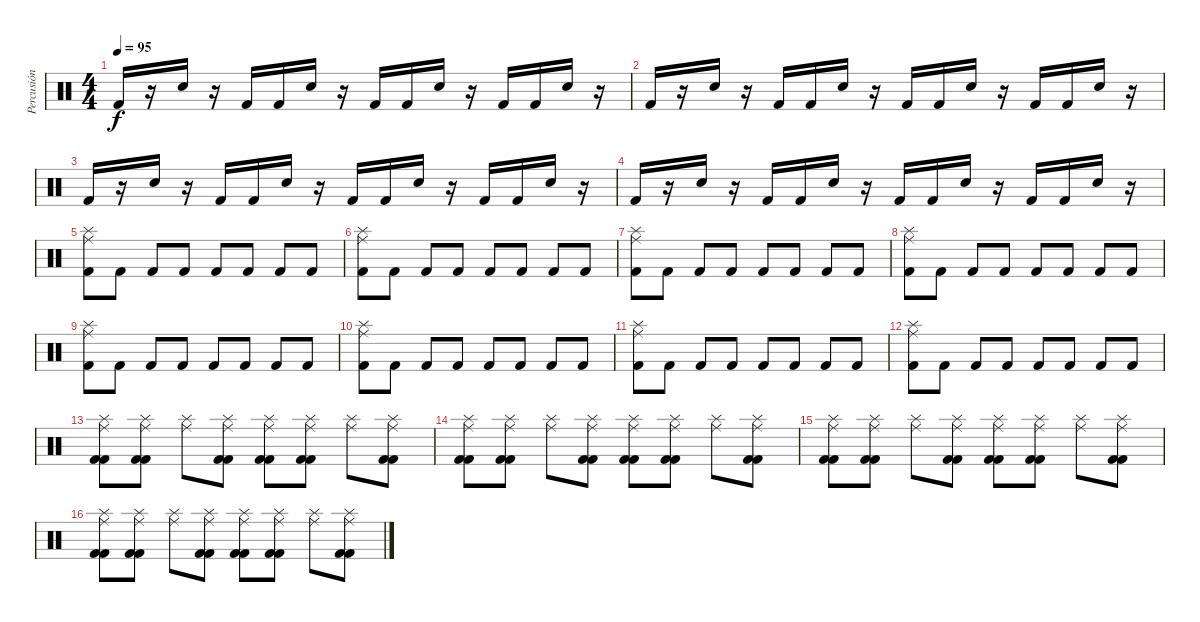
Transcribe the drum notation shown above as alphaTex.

\track ("Percusión" "Percusión") {instrument percussion}
\staff {score}
\articulation defaults
\ts (4 4)
\tempo 95
\clef neutral
\ks c "Kick (hit) 2".16{dy f}
r.16 "Snare (hit) 2".16 r.16 "Kick (hit) 2".16 "Kick (hit) 2".16 "Snare (hit) 2".16 r.16 "Kick (hit) 2".16 "Kick (hit) 2".16 "Snare (hit) 2".16 r.16 "Kick (hit) 2".16 "Kick (hit) 2".16 "Snare (hit) 2".16 r.16 |
"Kick (hit) 2".16 r.16 "Snare (hit) 2".16 r.16 "Kick (hit) 2".16 "Kick (hit) 2".16 "Snare (hit) 2".16 r.16 "Kick (hit) 2".16 "Kick (hit) 2".16 "Snare (hit) 2".16 r.16 "Kick (hit) 2".16 "Kick (hit) 2".16 "Snare (hit) 2".16 r.16 |
"Kick (hit) 2".16 r.16 "Snare (hit) 2".16 r.16 "Kick (hit) 2".16 "Kick (hit) 2".16 "Snare (hit) 2".16 r.16 "Kick (hit) 2".16 "Kick (hit) 2".16 "Snare (hit) 2".16 r.16 "Kick (hit) 2".16 "Kick (hit) 2".16 "Snare (hit) 2".16 r.16 |
"Kick (hit) 2".16 r.16 "Snare (hit) 2".16 r.16 "Kick (hit) 2".16 "Kick (hit) 2".16 "Snare (hit) 2".16 r.16 "Kick (hit) 2".16 "Kick (hit) 2".16 "Snare (hit) 2".16 r.16 "Kick (hit) 2".16 "Kick (hit) 2".16 "Snare (hit) 2".16 r.16 |
("Splash (hit)" "Ride (middle)" "Kick (hit) 2").8 "Kick (hit) 2".8 "Kick (hit) 2".8 "Kick (hit) 2".8 "Kick (hit) 2".8 "Kick (hit) 2".8 "Kick (hit) 2".8 "Kick (hit) 2".8 |
("Splash (hit)" "Ride (middle)" "Kick (hit) 2").8 "Kick (hit) 2".8 "Kick (hit) 2".8 "Kick (hit) 2".8 "Kick (hit) 2".8 "Kick (hit) 2".8 "Kick (hit) 2".8 "Kick (hit) 2".8 |
("Splash (hit)" "Ride (middle)" "Kick (hit) 2").8 "Kick (hit) 2".8 "Kick (hit) 2".8 "Kick (hit) 2".8 "Kick (hit) 2".8 "Kick (hit) 2".8 "Kick (hit) 2".8 "Kick (hit) 2".8 |
("Splash (hit)" "Ride (middle)" "Kick (hit) 2").8 "Kick (hit) 2".8 "Kick (hit) 2".8 "Kick (hit) 2".8 "Kick (hit) 2".8 "Kick (hit) 2".8 "Kick (hit) 2".8 "Kick (hit) 2".8 |
("Splash (hit)" "Ride (middle)" "Kick (hit) 2").8 "Kick (hit) 2".8 "Kick (hit) 2".8 "Kick (hit) 2".8 "Kick (hit) 2".8 "Kick (hit) 2".8 "Kick (hit) 2".8 "Kick (hit) 2".8 |
("Splash (hit)" "Ride (middle)" "Kick (hit) 2").8 "Kick (hit) 2".8 "Kick (hit) 2".8 "Kick (hit) 2".8 "Kick (hit) 2".8 "Kick (hit) 2".8 "Kick (hit) 2".8 "Kick (hit) 2".8 |
("Splash (hit)" "Ride (middle)" "Kick (hit) 2").8 "Kick (hit) 2".8 "Kick (hit) 2".8 "Kick (hit) 2".8 "Kick (hit) 2".8 "Kick (hit) 2".8 "Kick (hit) 2".8 "Kick (hit) 2".8 |
("Splash (hit)" "Ride (middle)" "Kick (hit) 2").8 "Kick (hit) 2".8 "Kick (hit) 2".8 "Kick (hit) 2".8 "Kick (hit) 2".8 "Kick (hit) 2".8 "Kick (hit) 2".8 "Kick (hit) 2".8 |
("Splash (hit)" "Ride (middle)" "Kick (hit) 2" "Kick (hit) 2").8 ("Splash (hit)" "Ride (middle)" "Kick (hit) 2" "Kick (hit) 2").8 ("Splash (hit)" "Ride (middle)").8 ("Splash (hit)" "Ride (middle)" "Kick (hit) 2" "Kick (hit) 2").8 ("Splash (hit)" "Ride (middle)" "Kick (hit) 2" "Kick (hit) 2").8 ("Splash (hit)" "Ride (middle)" "Kick (hit) 2" "Kick (hit) 2").8 ("Splash (hit)" "Ride (middle)").8 ("Splash (hit)" "Ride (middle)" "Kick (hit) 2" "Kick (hit) 2").8 |
("Splash (hit)" "Ride (middle)" "Kick (hit) 2" "Kick (hit) 2").8 ("Splash (hit)" "Ride (middle)" "Kick (hit) 2" "Kick (hit) 2").8 ("Splash (hit)" "Ride (middle)").8 ("Splash (hit)" "Ride (middle)" "Kick (hit) 2" "Kick (hit) 2").8 ("Splash (hit)" "Ride (middle)" "Kick (hit) 2" "Kick (hit) 2").8 ("Splash (hit)" "Ride (middle)" "Kick (hit) 2" "Kick (hit) 2").8 ("Splash (hit)" "Ride (middle)").8 ("Splash (hit)" "Ride (middle)" "Kick (hit) 2" "Kick (hit) 2").8 |
("Splash (hit)" "Ride (middle)" "Kick (hit) 2" "Kick (hit) 2").8 ("Splash (hit)" "Ride (middle)" "Kick (hit) 2" "Kick (hit) 2").8 ("Splash (hit)" "Ride (middle)").8 ("Splash (hit)" "Ride (middle)" "Kick (hit) 2" "Kick (hit) 2").8 ("Splash (hit)" "Ride (middle)" "Kick (hit) 2" "Kick (hit) 2").8 ("Splash (hit)" "Ride (middle)" "Kick (hit) 2" "Kick (hit) 2").8 ("Splash (hit)" "Ride (middle)").8 ("Splash (hit)" "Ride (middle)" "Kick (hit) 2" "Kick (hit) 2").8 |
("Splash (hit)" "Ride (middle)" "Kick (hit) 2" "Kick (hit) 2").8 ("Splash (hit)" "Ride (middle)" "Kick (hit) 2" "Kick (hit) 2").8 ("Splash (hit)" "Ride (middle)").8 ("Splash (hit)" "Ride (middle)" "Kick (hit) 2" "Kick (hit) 2").8 ("Splash (hit)" "Ride (middle)" "Kick (hit) 2" "Kick (hit) 2").8 ("Splash (hit)" "Ride (middle)" "Kick (hit) 2" "Kick (hit) 2").8 ("Splash (hit)" "Ride (middle)").8 ("Splash (hit)" "Ride (middle)" "Kick (hit) 2" "Kick (hit) 2").8
